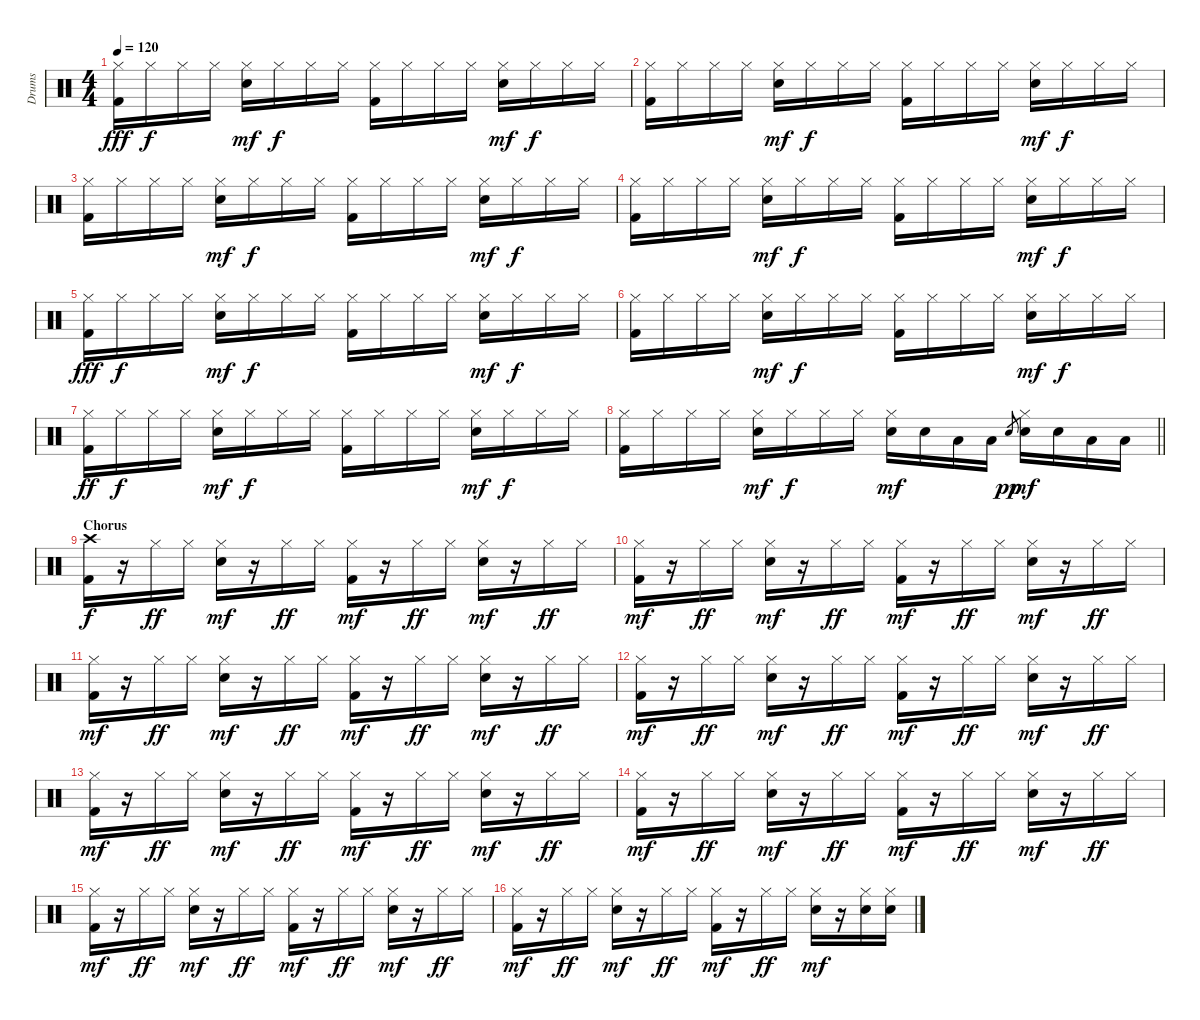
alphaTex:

\track ("Drums" "Drums") {instrument percussion}
\staff {score}
\articulation defaults
\ts (4 4)
\tempo 120
\clef neutral
\ks c
("Hi-Hat (closed)" "Kick (hit) 2").16{dy fff} "Hi-Hat (closed)".16{dy f} "Hi-Hat (closed)".16 "Hi-Hat (closed)".16 ("Hi-Hat (closed)" "Electric Snare (hit)").16{dy mf} "Hi-Hat (closed)".16{dy f} "Hi-Hat (closed)".16 "Hi-Hat (closed)".16 ("Hi-Hat (closed)" "Kick (hit) 2").16 "Hi-Hat (closed)".16 "Hi-Hat (closed)".16 "Hi-Hat (closed)".16 ("Hi-Hat (closed)" "Electric Snare (hit)").16{dy mf} "Hi-Hat (closed)".16{dy f} "Hi-Hat (closed)".16 "Hi-Hat (closed)".16 |
("Hi-Hat (closed)" "Kick (hit) 2").16 "Hi-Hat (closed)".16 "Hi-Hat (closed)".16 "Hi-Hat (closed)".16 ("Hi-Hat (closed)" "Electric Snare (hit)").16{dy mf} "Hi-Hat (closed)".16{dy f} "Hi-Hat (closed)".16 "Hi-Hat (closed)".16 ("Hi-Hat (closed)" "Kick (hit) 2").16 "Hi-Hat (closed)".16 "Hi-Hat (closed)".16 "Hi-Hat (closed)".16 ("Hi-Hat (closed)" "Electric Snare (hit)").16{dy mf} "Hi-Hat (closed)".16{dy f} "Hi-Hat (closed)".16 "Hi-Hat (closed)".16 |
("Hi-Hat (closed)" "Kick (hit) 2").16 "Hi-Hat (closed)".16 "Hi-Hat (closed)".16 "Hi-Hat (closed)".16 ("Hi-Hat (closed)" "Electric Snare (hit)").16{dy mf} "Hi-Hat (closed)".16{dy f} "Hi-Hat (closed)".16 "Hi-Hat (closed)".16 ("Hi-Hat (closed)" "Kick (hit) 2").16 "Hi-Hat (closed)".16 "Hi-Hat (closed)".16 "Hi-Hat (closed)".16 ("Hi-Hat (closed)" "Electric Snare (hit)").16{dy mf} "Hi-Hat (closed)".16{dy f} "Hi-Hat (closed)".16 "Hi-Hat (closed)".16 |
("Hi-Hat (closed)" "Kick (hit) 2").16 "Hi-Hat (closed)".16 "Hi-Hat (closed)".16 "Hi-Hat (closed)".16 ("Hi-Hat (closed)" "Electric Snare (hit)").16{dy mf} "Hi-Hat (closed)".16{dy f} "Hi-Hat (closed)".16 "Hi-Hat (closed)".16 ("Hi-Hat (closed)" "Kick (hit) 2").16 "Hi-Hat (closed)".16 "Hi-Hat (closed)".16 "Hi-Hat (closed)".16 ("Hi-Hat (closed)" "Electric Snare (hit)").16{dy mf} "Hi-Hat (closed)".16{dy f} "Hi-Hat (closed)".16 "Hi-Hat (closed)".16 |
("Hi-Hat (closed)" "Kick (hit) 2").16{dy fff} "Hi-Hat (closed)".16{dy f} "Hi-Hat (closed)".16 "Hi-Hat (closed)".16 ("Hi-Hat (closed)" "Electric Snare (hit)").16{dy mf} "Hi-Hat (closed)".16{dy f} "Hi-Hat (closed)".16 "Hi-Hat (closed)".16 ("Hi-Hat (closed)" "Kick (hit) 2").16 "Hi-Hat (closed)".16 "Hi-Hat (closed)".16 "Hi-Hat (closed)".16 ("Hi-Hat (closed)" "Electric Snare (hit)").16{dy mf} "Hi-Hat (closed)".16{dy f} "Hi-Hat (closed)".16 "Hi-Hat (closed)".16 |
("Hi-Hat (closed)" "Kick (hit) 2").16 "Hi-Hat (closed)".16 "Hi-Hat (closed)".16 "Hi-Hat (closed)".16 ("Hi-Hat (closed)" "Electric Snare (hit)").16{dy mf} "Hi-Hat (closed)".16{dy f} "Hi-Hat (closed)".16 "Hi-Hat (closed)".16 ("Hi-Hat (closed)" "Kick (hit) 2").16 "Hi-Hat (closed)".16 "Hi-Hat (closed)".16 "Hi-Hat (closed)".16 ("Hi-Hat (closed)" "Electric Snare (hit)").16{dy mf} "Hi-Hat (closed)".16{dy f} "Hi-Hat (closed)".16 "Hi-Hat (closed)".16 |
("Hi-Hat (closed)" "Kick (hit) 2").16{dy ff} "Hi-Hat (closed)".16{dy f} "Hi-Hat (closed)".16 "Hi-Hat (closed)".16 ("Hi-Hat (closed)" "Electric Snare (hit)").16{dy mf} "Hi-Hat (closed)".16{dy f} "Hi-Hat (closed)".16 "Hi-Hat (closed)".16 ("Hi-Hat (closed)" "Kick (hit) 2").16 "Hi-Hat (closed)".16 "Hi-Hat (closed)".16 "Hi-Hat (closed)".16 ("Hi-Hat (closed)" "Electric Snare (hit)").16{dy mf} "Hi-Hat (closed)".16{dy f} "Hi-Hat (closed)".16 "Hi-Hat (closed)".16 |
\barLineRight lightlight
("Hi-Hat (closed)" "Kick (hit) 2").16 "Hi-Hat (closed)".16 "Hi-Hat (closed)".16 "Hi-Hat (closed)".16 ("Hi-Hat (closed)" "Electric Snare (hit)").16{dy mf} "Hi-Hat (closed)".16{dy f} "Hi-Hat (closed)".16 "Hi-Hat (closed)".16 ("Hi-Hat (closed)" "Electric Snare (hit)").16{dy mf} "Electric Snare (hit)".16 "Low Tom (hit)".16 "Low Tom (hit)".16 "Electric Snare (hit)".8{gr dy pp} ("Hi-Hat (closed)" "Electric Snare (hit)").16{dy mf} "Electric Snare (hit)".16 "Low Tom (hit)".16 "Low Tom (hit)".16 |
\section ("" "Chorus")
("Crash high (hit)" "Kick (hit) 2").16{dy f} r.16 "Hi-Hat (closed)".16{dy ff} "Hi-Hat (closed)".16 ("Hi-Hat (closed)" "Electric Snare (hit)").16{dy mf} r.16 "Hi-Hat (closed)".16{dy ff} "Hi-Hat (closed)".16 ("Hi-Hat (closed)" "Kick (hit) 2").16{dy mf} r.16 "Hi-Hat (closed)".16{dy ff} "Hi-Hat (closed)".16 ("Hi-Hat (closed)" "Electric Snare (hit)").16{dy mf} r.16 "Hi-Hat (closed)".16{dy ff} "Hi-Hat (closed)".16 |
("Hi-Hat (closed)" "Kick (hit) 2").16{dy mf} r.16 "Hi-Hat (closed)".16{dy ff} "Hi-Hat (closed)".16 ("Hi-Hat (closed)" "Electric Snare (hit)").16{dy mf} r.16 "Hi-Hat (closed)".16{dy ff} "Hi-Hat (closed)".16 ("Hi-Hat (closed)" "Kick (hit) 2").16{dy mf} r.16 "Hi-Hat (closed)".16{dy ff} "Hi-Hat (closed)".16 ("Hi-Hat (closed)" "Electric Snare (hit)").16{dy mf} r.16 "Hi-Hat (closed)".16{dy ff} "Hi-Hat (closed)".16 |
("Hi-Hat (closed)" "Kick (hit) 2").16{dy mf} r.16 "Hi-Hat (closed)".16{dy ff} "Hi-Hat (closed)".16 ("Hi-Hat (closed)" "Electric Snare (hit)").16{dy mf} r.16 "Hi-Hat (closed)".16{dy ff} "Hi-Hat (closed)".16 ("Hi-Hat (closed)" "Kick (hit) 2").16{dy mf} r.16 "Hi-Hat (closed)".16{dy ff} "Hi-Hat (closed)".16 ("Hi-Hat (closed)" "Electric Snare (hit)").16{dy mf} r.16 "Hi-Hat (closed)".16{dy ff} "Hi-Hat (closed)".16 |
("Hi-Hat (closed)" "Kick (hit) 2").16{dy mf} r.16 "Hi-Hat (closed)".16{dy ff} "Hi-Hat (closed)".16 ("Hi-Hat (closed)" "Electric Snare (hit)").16{dy mf} r.16 "Hi-Hat (closed)".16{dy ff} "Hi-Hat (closed)".16 ("Hi-Hat (closed)" "Kick (hit) 2").16{dy mf} r.16 "Hi-Hat (closed)".16{dy ff} "Hi-Hat (closed)".16 ("Hi-Hat (closed)" "Electric Snare (hit)").16{dy mf} r.16 "Hi-Hat (closed)".16{dy ff} "Hi-Hat (closed)".16 |
("Hi-Hat (closed)" "Kick (hit) 2").16{dy mf} r.16 "Hi-Hat (closed)".16{dy ff} "Hi-Hat (closed)".16 ("Hi-Hat (closed)" "Electric Snare (hit)").16{dy mf} r.16 "Hi-Hat (closed)".16{dy ff} "Hi-Hat (closed)".16 ("Hi-Hat (closed)" "Kick (hit) 2").16{dy mf} r.16 "Hi-Hat (closed)".16{dy ff} "Hi-Hat (closed)".16 ("Hi-Hat (closed)" "Electric Snare (hit)").16{dy mf} r.16 "Hi-Hat (closed)".16{dy ff} "Hi-Hat (closed)".16 |
("Hi-Hat (closed)" "Kick (hit) 2").16{dy mf} r.16 "Hi-Hat (closed)".16{dy ff} "Hi-Hat (closed)".16 ("Hi-Hat (closed)" "Electric Snare (hit)").16{dy mf} r.16 "Hi-Hat (closed)".16{dy ff} "Hi-Hat (closed)".16 ("Hi-Hat (closed)" "Kick (hit) 2").16{dy mf} r.16 "Hi-Hat (closed)".16{dy ff} "Hi-Hat (closed)".16 ("Hi-Hat (closed)" "Electric Snare (hit)").16{dy mf} r.16 "Hi-Hat (closed)".16{dy ff} "Hi-Hat (closed)".16 |
("Hi-Hat (closed)" "Kick (hit) 2").16{dy mf} r.16 "Hi-Hat (closed)".16{dy ff} "Hi-Hat (closed)".16 ("Hi-Hat (closed)" "Electric Snare (hit)").16{dy mf} r.16 "Hi-Hat (closed)".16{dy ff} "Hi-Hat (closed)".16 ("Hi-Hat (closed)" "Kick (hit) 2").16{dy mf} r.16 "Hi-Hat (closed)".16{dy ff} "Hi-Hat (closed)".16 ("Hi-Hat (closed)" "Electric Snare (hit)").16{dy mf} r.16 "Hi-Hat (closed)".16{dy ff} "Hi-Hat (closed)".16 |
("Hi-Hat (closed)" "Kick (hit) 2").16{dy mf} r.16 "Hi-Hat (closed)".16{dy ff} "Hi-Hat (closed)".16 ("Hi-Hat (closed)" "Electric Snare (hit)").16{dy mf} r.16 "Hi-Hat (closed)".16{dy ff} "Hi-Hat (closed)".16 ("Hi-Hat (closed)" "Kick (hit) 2").16{dy mf} r.16 "Hi-Hat (closed)".16{dy ff} "Hi-Hat (closed)".16 ("Hi-Hat (closed)" "Electric Snare (hit)").16{dy mf} r.16 ("Hi-Hat (closed)" "Electric Snare (hit)").16 ("Hi-Hat (closed)" "Electric Snare (hit)").16
